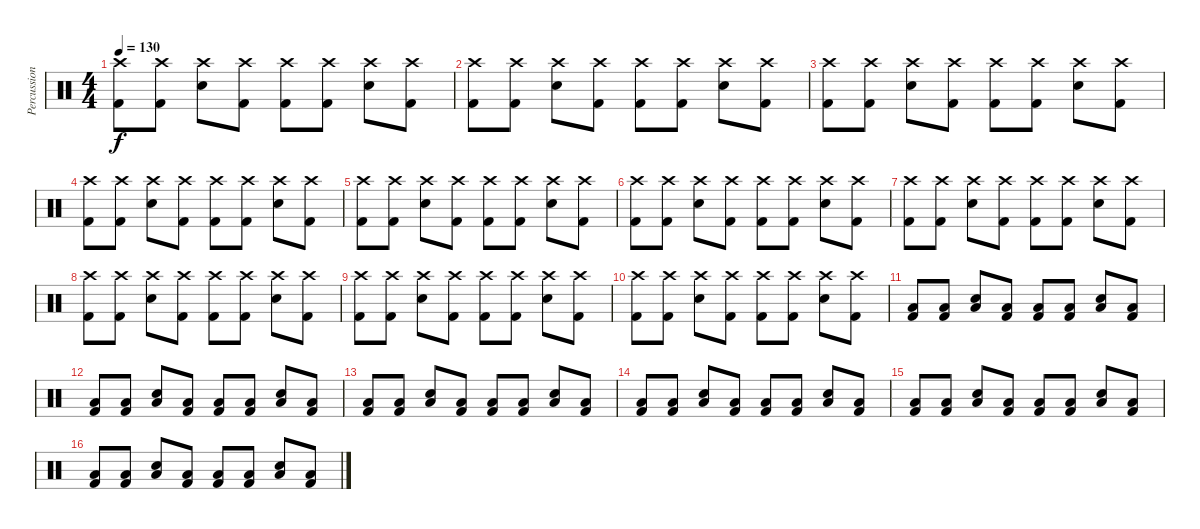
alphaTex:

\track ("Percussion" "Percussion") {instrument percussion}
\staff {score}
\articulation defaults
\ts (4 4)
\tempo 130
\clef neutral
\ks c
("Crash high (hit)" "Kick (hit) 2").8{dy f} ("Crash high (hit)" "Kick (hit) 2").8 ("Crash high (hit)" "Snare (hit) 2").8 ("Crash high (hit)" "Kick (hit) 2").8 ("Crash high (hit)" "Kick (hit) 2").8 ("Crash high (hit)" "Kick (hit) 2").8 ("Crash high (hit)" "Snare (hit) 2").8 ("Crash high (hit)" "Kick (hit) 2").8 |
("Crash high (hit)" "Kick (hit) 2").8 ("Crash high (hit)" "Kick (hit) 2").8 ("Crash high (hit)" "Snare (hit) 2").8 ("Crash high (hit)" "Kick (hit) 2").8 ("Crash high (hit)" "Kick (hit) 2").8 ("Crash high (hit)" "Kick (hit) 2").8 ("Crash high (hit)" "Snare (hit) 2").8 ("Crash high (hit)" "Kick (hit) 2").8 |
("Crash high (hit)" "Kick (hit) 2").8 ("Crash high (hit)" "Kick (hit) 2").8 ("Crash high (hit)" "Snare (hit) 2").8 ("Crash high (hit)" "Kick (hit) 2").8 ("Crash high (hit)" "Kick (hit) 2").8 ("Crash high (hit)" "Kick (hit) 2").8 ("Crash high (hit)" "Snare (hit) 2").8 ("Crash high (hit)" "Kick (hit) 2").8 |
("Crash high (hit)" "Kick (hit) 2").8 ("Crash high (hit)" "Kick (hit) 2").8 ("Crash high (hit)" "Snare (hit) 2").8 ("Crash high (hit)" "Kick (hit) 2").8 ("Crash high (hit)" "Kick (hit) 2").8 ("Crash high (hit)" "Kick (hit) 2").8 ("Crash high (hit)" "Snare (hit) 2").8 ("Crash high (hit)" "Kick (hit) 2").8 |
("Crash high (hit)" "Kick (hit) 2").8 ("Crash high (hit)" "Kick (hit) 2").8 ("Crash high (hit)" "Snare (hit) 2").8 ("Crash high (hit)" "Kick (hit) 2").8 ("Crash high (hit)" "Kick (hit) 2").8 ("Crash high (hit)" "Kick (hit) 2").8 ("Crash high (hit)" "Snare (hit) 2").8 ("Crash high (hit)" "Kick (hit) 2").8 |
("Crash high (hit)" "Kick (hit) 2").8 ("Crash high (hit)" "Kick (hit) 2").8 ("Crash high (hit)" "Snare (hit) 2").8 ("Crash high (hit)" "Kick (hit) 2").8 ("Crash high (hit)" "Kick (hit) 2").8 ("Crash high (hit)" "Kick (hit) 2").8 ("Crash high (hit)" "Snare (hit) 2").8 ("Crash high (hit)" "Kick (hit) 2").8 |
("Crash high (hit)" "Kick (hit) 2").8 ("Crash high (hit)" "Kick (hit) 2").8 ("Crash high (hit)" "Snare (hit) 2").8 ("Crash high (hit)" "Kick (hit) 2").8 ("Crash high (hit)" "Kick (hit) 2").8 ("Crash high (hit)" "Kick (hit) 2").8 ("Crash high (hit)" "Snare (hit) 2").8 ("Crash high (hit)" "Kick (hit) 2").8 |
("Crash high (hit)" "Kick (hit) 2").8 ("Crash high (hit)" "Kick (hit) 2").8 ("Crash high (hit)" "Snare (hit) 2").8 ("Crash high (hit)" "Kick (hit) 2").8 ("Crash high (hit)" "Kick (hit) 2").8 ("Crash high (hit)" "Kick (hit) 2").8 ("Crash high (hit)" "Snare (hit) 2").8 ("Crash high (hit)" "Kick (hit) 2").8 |
("Crash high (hit)" "Kick (hit) 2").8 ("Crash high (hit)" "Kick (hit) 2").8 ("Crash high (hit)" "Snare (hit) 2").8 ("Crash high (hit)" "Kick (hit) 2").8 ("Crash high (hit)" "Kick (hit) 2").8 ("Crash high (hit)" "Kick (hit) 2").8 ("Crash high (hit)" "Snare (hit) 2").8 ("Crash high (hit)" "Kick (hit) 2").8 |
("Crash high (hit)" "Kick (hit) 2").8 ("Crash high (hit)" "Kick (hit) 2").8 ("Crash high (hit)" "Snare (hit) 2").8 ("Crash high (hit)" "Kick (hit) 2").8 ("Crash high (hit)" "Kick (hit) 2").8 ("Crash high (hit)" "Kick (hit) 2").8 ("Crash high (hit)" "Snare (hit) 2").8 ("Crash high (hit)" "Kick (hit) 2").8 |
("Low Floor Tom (hit)" "Kick (hit) 2").8 ("Low Floor Tom (hit)" "Kick (hit) 2").8 ("Snare (hit) 2" "Low Floor Tom (hit)").8 ("Low Floor Tom (hit)" "Kick (hit) 2").8 ("Low Floor Tom (hit)" "Kick (hit) 2").8 ("Low Floor Tom (hit)" "Kick (hit) 2").8 ("Snare (hit) 2" "Low Floor Tom (hit)").8 ("Low Floor Tom (hit)" "Kick (hit) 2").8 |
("Low Floor Tom (hit)" "Kick (hit) 2").8 ("Low Floor Tom (hit)" "Kick (hit) 2").8 ("Snare (hit) 2" "Low Floor Tom (hit)").8 ("Low Floor Tom (hit)" "Kick (hit) 2").8 ("Low Floor Tom (hit)" "Kick (hit) 2").8 ("Low Floor Tom (hit)" "Kick (hit) 2").8 ("Snare (hit) 2" "Low Floor Tom (hit)").8 ("Low Floor Tom (hit)" "Kick (hit) 2").8 |
("Low Floor Tom (hit)" "Kick (hit) 2").8 ("Low Floor Tom (hit)" "Kick (hit) 2").8 ("Snare (hit) 2" "Low Floor Tom (hit)").8 ("Low Floor Tom (hit)" "Kick (hit) 2").8 ("Low Floor Tom (hit)" "Kick (hit) 2").8 ("Low Floor Tom (hit)" "Kick (hit) 2").8 ("Snare (hit) 2" "Low Floor Tom (hit)").8 ("Low Floor Tom (hit)" "Kick (hit) 2").8 |
("Low Floor Tom (hit)" "Kick (hit) 2").8 ("Low Floor Tom (hit)" "Kick (hit) 2").8 ("Snare (hit) 2" "Low Floor Tom (hit)").8 ("Low Floor Tom (hit)" "Kick (hit) 2").8 ("Low Floor Tom (hit)" "Kick (hit) 2").8 ("Low Floor Tom (hit)" "Kick (hit) 2").8 ("Snare (hit) 2" "Low Floor Tom (hit)").8 ("Low Floor Tom (hit)" "Kick (hit) 2").8 |
("Low Floor Tom (hit)" "Kick (hit) 2").8 ("Low Floor Tom (hit)" "Kick (hit) 2").8 ("Snare (hit) 2" "Low Floor Tom (hit)").8 ("Low Floor Tom (hit)" "Kick (hit) 2").8 ("Low Floor Tom (hit)" "Kick (hit) 2").8 ("Low Floor Tom (hit)" "Kick (hit) 2").8 ("Snare (hit) 2" "Low Floor Tom (hit)").8 ("Low Floor Tom (hit)" "Kick (hit) 2").8 |
("Low Floor Tom (hit)" "Kick (hit) 2").8 ("Low Floor Tom (hit)" "Kick (hit) 2").8 ("Snare (hit) 2" "Low Floor Tom (hit)").8 ("Low Floor Tom (hit)" "Kick (hit) 2").8 ("Low Floor Tom (hit)" "Kick (hit) 2").8 ("Low Floor Tom (hit)" "Kick (hit) 2").8 ("Snare (hit) 2" "Low Floor Tom (hit)").8 ("Low Floor Tom (hit)" "Kick (hit) 2").8
